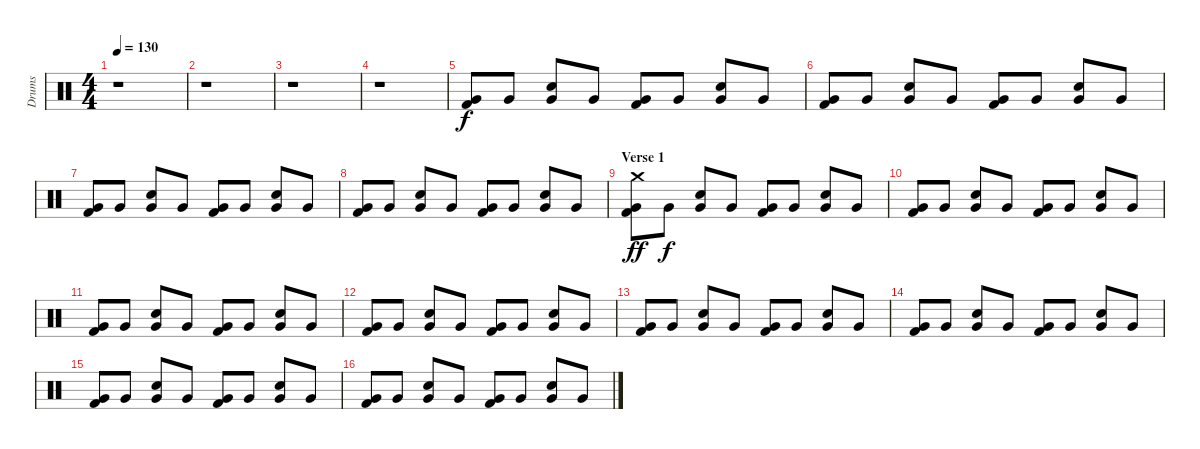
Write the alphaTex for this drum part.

\track ("Drums" "Drums") {instrument percussion}
\staff {score}
\articulation defaults
\ts (4 4)
\tempo 130
\clef neutral
\ks c
r.1{dy f} |
r.1 |
r.1 |
r.1 |
("Very Low Tom (hit)" "Kick (hit) 2").8 "Very Low Tom (hit)".8 ("Snare (hit) 2" "Very Low Tom (hit)").8 "Very Low Tom (hit)".8 ("Very Low Tom (hit)" "Kick (hit) 2").8 "Very Low Tom (hit)".8 ("Snare (hit) 2" "Very Low Tom (hit)").8 "Very Low Tom (hit)".8 |
("Very Low Tom (hit)" "Kick (hit) 2").8 "Very Low Tom (hit)".8 ("Snare (hit) 2" "Very Low Tom (hit)").8 "Very Low Tom (hit)".8 ("Very Low Tom (hit)" "Kick (hit) 2").8 "Very Low Tom (hit)".8 ("Snare (hit) 2" "Very Low Tom (hit)").8 "Very Low Tom (hit)".8 |
("Very Low Tom (hit)" "Kick (hit) 2").8 "Very Low Tom (hit)".8 ("Snare (hit) 2" "Very Low Tom (hit)").8 "Very Low Tom (hit)".8 ("Very Low Tom (hit)" "Kick (hit) 2").8 "Very Low Tom (hit)".8 ("Snare (hit) 2" "Very Low Tom (hit)").8 "Very Low Tom (hit)".8 |
("Very Low Tom (hit)" "Kick (hit) 2").8 "Very Low Tom (hit)".8 ("Snare (hit) 2" "Very Low Tom (hit)").8 "Very Low Tom (hit)".8 ("Very Low Tom (hit)" "Kick (hit) 2").8 "Very Low Tom (hit)".8 ("Snare (hit) 2" "Very Low Tom (hit)").8 "Very Low Tom (hit)".8 |
\section ("" "Verse 1")
("Crash medium (hit)" "Very Low Tom (hit)" "Kick (hit) 2").8{dy ff} "Very Low Tom (hit)".8{dy f} ("Snare (hit) 2" "Very Low Tom (hit)").8 "Very Low Tom (hit)".8 ("Very Low Tom (hit)" "Kick (hit) 2").8 "Very Low Tom (hit)".8 ("Snare (hit) 2" "Very Low Tom (hit)").8 "Very Low Tom (hit)".8 |
("Very Low Tom (hit)" "Kick (hit) 2").8 "Very Low Tom (hit)".8 ("Snare (hit) 2" "Very Low Tom (hit)").8 "Very Low Tom (hit)".8 ("Very Low Tom (hit)" "Kick (hit) 2").8 "Very Low Tom (hit)".8 ("Snare (hit) 2" "Very Low Tom (hit)").8 "Very Low Tom (hit)".8 |
("Very Low Tom (hit)" "Kick (hit) 2").8 "Very Low Tom (hit)".8 ("Snare (hit) 2" "Very Low Tom (hit)").8 "Very Low Tom (hit)".8 ("Very Low Tom (hit)" "Kick (hit) 2").8 "Very Low Tom (hit)".8 ("Snare (hit) 2" "Very Low Tom (hit)").8 "Very Low Tom (hit)".8 |
("Very Low Tom (hit)" "Kick (hit) 2").8 "Very Low Tom (hit)".8 ("Snare (hit) 2" "Very Low Tom (hit)").8 "Very Low Tom (hit)".8 ("Very Low Tom (hit)" "Kick (hit) 2").8 "Very Low Tom (hit)".8 ("Snare (hit) 2" "Very Low Tom (hit)").8 "Very Low Tom (hit)".8 |
("Very Low Tom (hit)" "Kick (hit) 2").8 "Very Low Tom (hit)".8 ("Snare (hit) 2" "Very Low Tom (hit)").8 "Very Low Tom (hit)".8 ("Very Low Tom (hit)" "Kick (hit) 2").8 "Very Low Tom (hit)".8 ("Snare (hit) 2" "Very Low Tom (hit)").8 "Very Low Tom (hit)".8 |
("Very Low Tom (hit)" "Kick (hit) 2").8 "Very Low Tom (hit)".8 ("Snare (hit) 2" "Very Low Tom (hit)").8 "Very Low Tom (hit)".8 ("Very Low Tom (hit)" "Kick (hit) 2").8 "Very Low Tom (hit)".8 ("Snare (hit) 2" "Very Low Tom (hit)").8 "Very Low Tom (hit)".8 |
("Very Low Tom (hit)" "Kick (hit) 2").8 "Very Low Tom (hit)".8 ("Snare (hit) 2" "Very Low Tom (hit)").8 "Very Low Tom (hit)".8 ("Very Low Tom (hit)" "Kick (hit) 2").8 "Very Low Tom (hit)".8 ("Snare (hit) 2" "Very Low Tom (hit)").8 "Very Low Tom (hit)".8 |
("Very Low Tom (hit)" "Kick (hit) 2").8 "Very Low Tom (hit)".8 ("Snare (hit) 2" "Very Low Tom (hit)").8 "Very Low Tom (hit)".8 ("Very Low Tom (hit)" "Kick (hit) 2").8 "Very Low Tom (hit)".8 ("Snare (hit) 2" "Very Low Tom (hit)").8 "Very Low Tom (hit)".8
